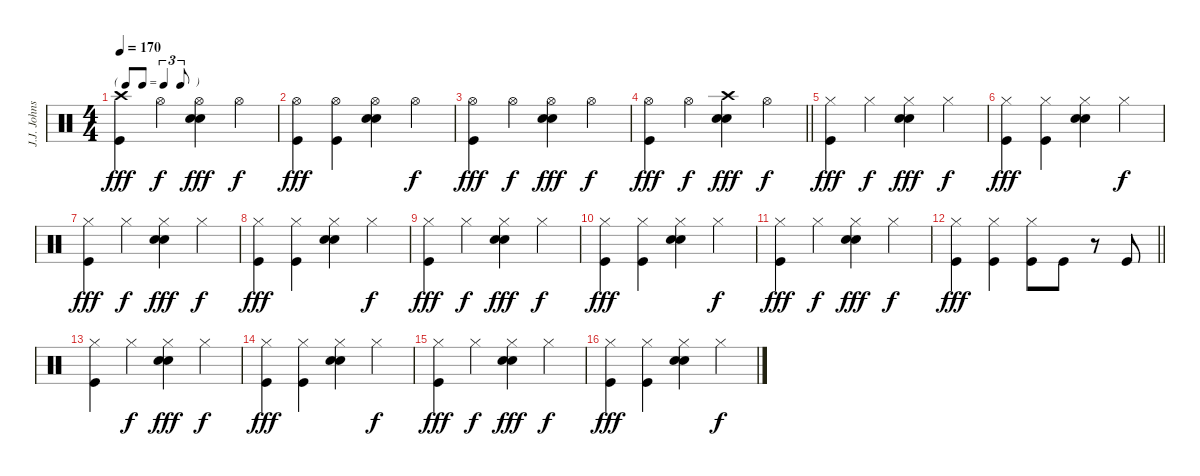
\track ("J.J. Johnson" "J.J. Johns") {instrument percussion}
\staff {score}
\articulation defaults
\ts (4 4)
\tf triplet8th
\tempo 170
\clef neutral
\ks c
("Crash high (hit)" "Kick (hit)").4{dy fff} "Hi-Hat (open)".4{dy f} ("Hi-Hat (open)" "Electric Snare (hit)" "Snare (hit) 2").4{dy fff} "Hi-Hat (open)".4{dy f} |
("Hi-Hat (open)" "Kick (hit)").4{dy fff} ("Hi-Hat (open)" "Kick (hit)").4 ("Hi-Hat (open)" "Snare (hit) 2" "Electric Snare (hit)").4 "Hi-Hat (open)".4{dy f} |
("Hi-Hat (open)" "Kick (hit)").4{dy fff} "Hi-Hat (open)".4{dy f} ("Hi-Hat (open)" "Electric Snare (hit)" "Snare (hit) 2").4{dy fff} "Hi-Hat (open)".4{dy f} |
\barLineRight lightlight
("Hi-Hat (open)" "Kick (hit)").4{dy fff} "Hi-Hat (open)".4{dy f} ("Crash high (hit)" "Electric Snare (hit)" "Snare (hit) 2").4{dy fff} "Hi-Hat (open)".4{dy f} |
("Hi-Hat (closed)" "Kick (hit)").4{dy fff} "Hi-Hat (closed)".4{dy f} ("Hi-Hat (closed)" "Electric Snare (hit)" "Snare (hit) 2").4{dy fff} "Hi-Hat (closed)".4{dy f} |
("Hi-Hat (closed)" "Kick (hit)").4{dy fff} ("Hi-Hat (closed)" "Kick (hit)").4 ("Hi-Hat (closed)" "Snare (hit) 2" "Electric Snare (hit)").4 "Hi-Hat (closed)".4{dy f} |
("Hi-Hat (closed)" "Kick (hit)").4{dy fff} "Hi-Hat (closed)".4{dy f} ("Hi-Hat (closed)" "Electric Snare (hit)" "Snare (hit) 2").4{dy fff} "Hi-Hat (closed)".4{dy f} |
("Hi-Hat (closed)" "Kick (hit)").4{dy fff} ("Hi-Hat (closed)" "Kick (hit)").4 ("Hi-Hat (closed)" "Snare (hit) 2" "Electric Snare (hit)").4 "Hi-Hat (closed)".4{dy f} |
("Hi-Hat (closed)" "Kick (hit)").4{dy fff} "Hi-Hat (closed)".4{dy f} ("Hi-Hat (closed)" "Electric Snare (hit)" "Snare (hit) 2").4{dy fff} "Hi-Hat (closed)".4{dy f} |
("Hi-Hat (closed)" "Kick (hit)").4{dy fff} ("Hi-Hat (closed)" "Kick (hit)").4 ("Hi-Hat (closed)" "Snare (hit) 2" "Electric Snare (hit)").4 "Hi-Hat (closed)".4{dy f} |
("Hi-Hat (closed)" "Kick (hit)").4{dy fff} "Hi-Hat (closed)".4{dy f} ("Hi-Hat (closed)" "Electric Snare (hit)" "Snare (hit) 2").4{dy fff} "Hi-Hat (closed)".4{dy f} |
\barLineRight lightlight
("Hi-Hat (closed)" "Kick (hit)").4{dy fff} ("Hi-Hat (closed)" "Kick (hit)").4 ("Hi-Hat (closed)" "Kick (hit)").8 "Kick (hit)".8 r.8 "Kick (hit)".8 |
("Hi-Hat (closed)" "Kick (hit)").4 "Hi-Hat (closed)".4{dy f} ("Hi-Hat (closed)" "Electric Snare (hit)" "Snare (hit) 2").4{dy fff} "Hi-Hat (closed)".4{dy f} |
("Hi-Hat (closed)" "Kick (hit)").4{dy fff} ("Hi-Hat (closed)" "Kick (hit)").4 ("Hi-Hat (closed)" "Snare (hit) 2" "Electric Snare (hit)").4 "Hi-Hat (closed)".4{dy f} |
("Hi-Hat (closed)" "Kick (hit)").4{dy fff} "Hi-Hat (closed)".4{dy f} ("Hi-Hat (closed)" "Electric Snare (hit)" "Snare (hit) 2").4{dy fff} "Hi-Hat (closed)".4{dy f} |
("Hi-Hat (closed)" "Kick (hit)").4{dy fff} ("Hi-Hat (closed)" "Kick (hit)").4 ("Hi-Hat (closed)" "Snare (hit) 2" "Electric Snare (hit)").4 "Hi-Hat (closed)".4{dy f}
